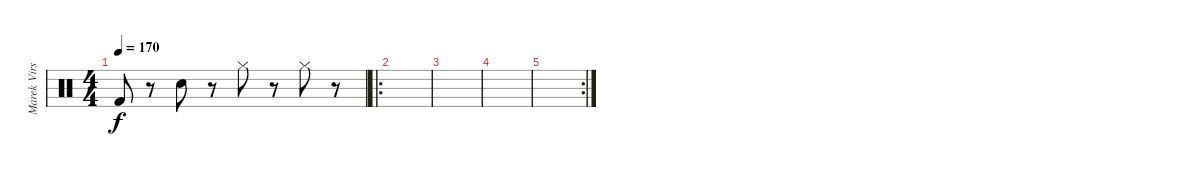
\track ("Marek Virsik" "Marek Virs") {instrument percussion}
\staff {score}
\articulation defaults
\ts (4 4)
\tempo 170
\clef neutral
\ks c "Kick (hit) 2".8{dy f}
r.8 "Electric Snare (hit)".8 r.8 "Hi-Hat (closed)".8 r.8 "Hi-Hat (closed)".8 r.8 |
\ro
|
|
|
\rc 2
